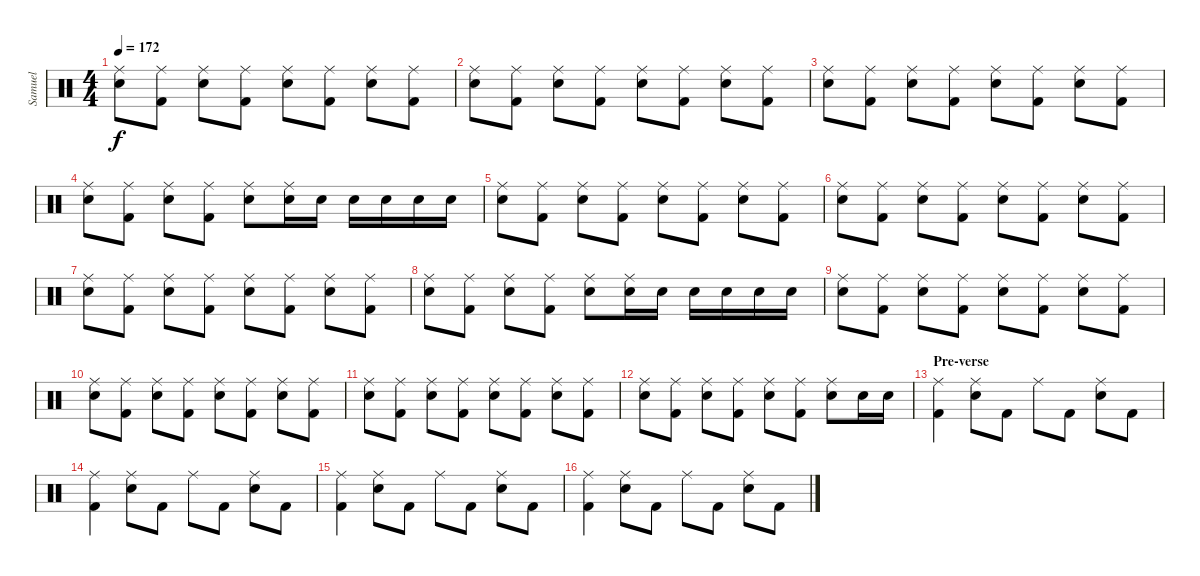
\track ("Samuel" "Samuel") {instrument percussion}
\staff {score}
\articulation defaults
\ts (4 4)
\tempo 172
\clef neutral
\ks c
("Ride (middle)" "Snare (hit) 2").8{dy f} ("Ride (middle)" "Kick (hit) 2").8 ("Ride (middle)" "Snare (hit) 2").8 ("Ride (middle)" "Kick (hit) 2").8 ("Ride (middle)" "Snare (hit) 2").8 ("Ride (middle)" "Kick (hit) 2").8 ("Ride (middle)" "Snare (hit) 2").8 ("Ride (middle)" "Kick (hit) 2").8 |
("Ride (middle)" "Snare (hit) 2").8 ("Ride (middle)" "Kick (hit) 2").8 ("Ride (middle)" "Snare (hit) 2").8 ("Ride (middle)" "Kick (hit) 2").8 ("Ride (middle)" "Snare (hit) 2").8 ("Ride (middle)" "Kick (hit) 2").8 ("Ride (middle)" "Snare (hit) 2").8 ("Ride (middle)" "Kick (hit) 2").8 |
("Ride (middle)" "Snare (hit) 2").8 ("Ride (middle)" "Kick (hit) 2").8 ("Ride (middle)" "Snare (hit) 2").8 ("Ride (middle)" "Kick (hit) 2").8 ("Ride (middle)" "Snare (hit) 2").8 ("Ride (middle)" "Kick (hit) 2").8 ("Ride (middle)" "Snare (hit) 2").8 ("Ride (middle)" "Kick (hit) 2").8 |
("Ride (middle)" "Snare (hit) 2").8 ("Ride (middle)" "Kick (hit) 2").8 ("Ride (middle)" "Snare (hit) 2").8 ("Ride (middle)" "Kick (hit) 2").8 ("Ride (middle)" "Snare (hit) 2").8 ("Ride (middle)" "Snare (hit) 2").16 "Snare (hit) 2".16 "Snare (hit) 2".16 "Snare (hit) 2".16 "Snare (hit) 2".16 "Snare (hit) 2".16 |
("Ride (middle)" "Snare (hit) 2").8 ("Ride (middle)" "Kick (hit) 2").8 ("Ride (middle)" "Snare (hit) 2").8 ("Ride (middle)" "Kick (hit) 2").8 ("Ride (middle)" "Snare (hit) 2").8 ("Ride (middle)" "Kick (hit) 2").8 ("Ride (middle)" "Snare (hit) 2").8 ("Ride (middle)" "Kick (hit) 2").8 |
("Ride (middle)" "Snare (hit) 2").8 ("Ride (middle)" "Kick (hit) 2").8 ("Ride (middle)" "Snare (hit) 2").8 ("Ride (middle)" "Kick (hit) 2").8 ("Ride (middle)" "Snare (hit) 2").8 ("Ride (middle)" "Kick (hit) 2").8 ("Ride (middle)" "Snare (hit) 2").8 ("Ride (middle)" "Kick (hit) 2").8 |
("Ride (middle)" "Snare (hit) 2").8 ("Ride (middle)" "Kick (hit) 2").8 ("Ride (middle)" "Snare (hit) 2").8 ("Ride (middle)" "Kick (hit) 2").8 ("Ride (middle)" "Snare (hit) 2").8 ("Ride (middle)" "Kick (hit) 2").8 ("Ride (middle)" "Snare (hit) 2").8 ("Ride (middle)" "Kick (hit) 2").8 |
("Ride (middle)" "Snare (hit) 2").8 ("Ride (middle)" "Kick (hit) 2").8 ("Ride (middle)" "Snare (hit) 2").8 ("Ride (middle)" "Kick (hit) 2").8 ("Ride (middle)" "Snare (hit) 2").8 ("Ride (middle)" "Snare (hit) 2").16 "Snare (hit) 2".16 "Snare (hit) 2".16 "Snare (hit) 2".16 "Snare (hit) 2".16 "Snare (hit) 2".16 |
("Ride (middle)" "Snare (hit) 2").8 ("Ride (middle)" "Kick (hit) 2").8 ("Ride (middle)" "Snare (hit) 2").8 ("Ride (middle)" "Kick (hit) 2").8 ("Ride (middle)" "Snare (hit) 2").8 ("Ride (middle)" "Kick (hit) 2").8 ("Ride (middle)" "Snare (hit) 2").8 ("Ride (middle)" "Kick (hit) 2").8 |
("Ride (middle)" "Snare (hit) 2").8 ("Ride (middle)" "Kick (hit) 2").8 ("Ride (middle)" "Snare (hit) 2").8 ("Ride (middle)" "Kick (hit) 2").8 ("Ride (middle)" "Snare (hit) 2").8 ("Ride (middle)" "Kick (hit) 2").8 ("Ride (middle)" "Snare (hit) 2").8 ("Ride (middle)" "Kick (hit) 2").8 |
("Ride (middle)" "Snare (hit) 2").8 ("Ride (middle)" "Kick (hit) 2").8 ("Ride (middle)" "Snare (hit) 2").8 ("Ride (middle)" "Kick (hit) 2").8 ("Ride (middle)" "Snare (hit) 2").8 ("Ride (middle)" "Kick (hit) 2").8 ("Ride (middle)" "Snare (hit) 2").8 ("Ride (middle)" "Kick (hit) 2").8 |
("Ride (middle)" "Snare (hit) 2").8 ("Ride (middle)" "Kick (hit) 2").8 ("Ride (middle)" "Snare (hit) 2").8 ("Ride (middle)" "Kick (hit) 2").8 ("Ride (middle)" "Snare (hit) 2").8 ("Ride (middle)" "Kick (hit) 2").8 ("Ride (middle)" "Snare (hit) 2").8 "Snare (hit) 2".16 "Snare (hit) 2".16 |
\section ("" "Pre-verse")
("Ride (middle)" "Kick (hit) 2").4 ("Ride (middle)" "Snare (hit) 2").8 "Kick (hit) 2".8 "Ride (middle)".8 "Kick (hit) 2".8 ("Ride (middle)" "Snare (hit) 2").8 "Kick (hit) 2".8 |
("Ride (middle)" "Kick (hit) 2").4 ("Ride (middle)" "Snare (hit) 2").8 "Kick (hit) 2".8 "Ride (middle)".8 "Kick (hit) 2".8 ("Ride (middle)" "Snare (hit) 2").8 "Kick (hit) 2".8 |
("Ride (middle)" "Kick (hit) 2").4 ("Ride (middle)" "Snare (hit) 2").8 "Kick (hit) 2".8 "Ride (middle)".8 "Kick (hit) 2".8 ("Ride (middle)" "Snare (hit) 2").8 "Kick (hit) 2".8 |
("Ride (middle)" "Kick (hit) 2").4 ("Ride (middle)" "Snare (hit) 2").8 "Kick (hit) 2".8 "Ride (middle)".8 "Kick (hit) 2".8 ("Ride (middle)" "Snare (hit) 2").8 "Kick (hit) 2".8
